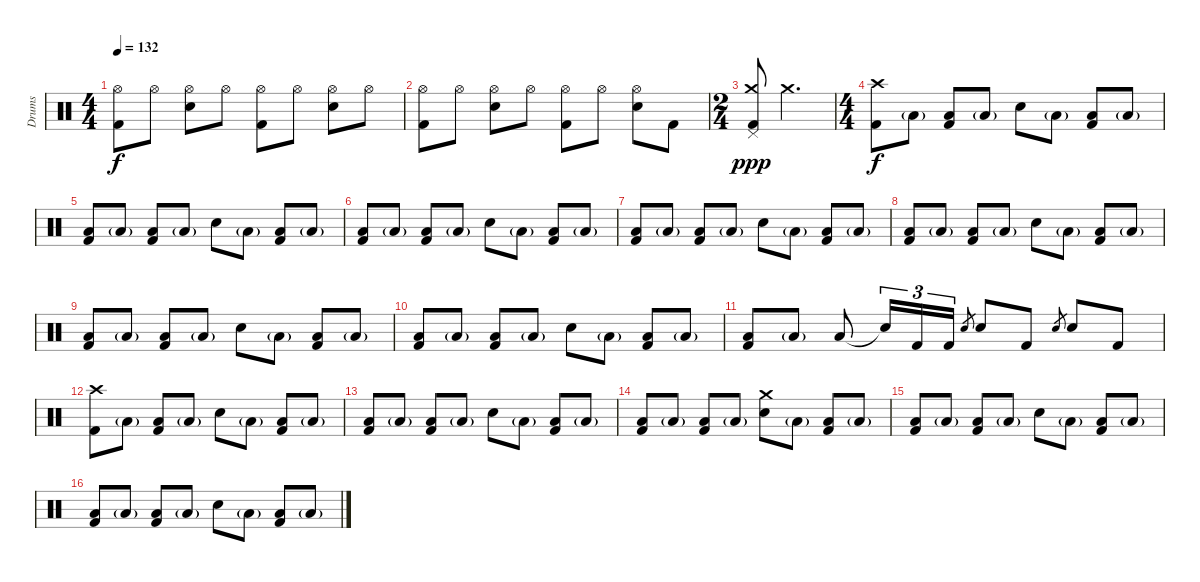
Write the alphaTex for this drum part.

\track ("Drums" "Drums") {instrument percussion}
\staff {score}
\articulation defaults
\ts (4 4)
\tempo 132
\clef neutral
\ks c
("Hi-Hat (open)" "Kick (hit) 2").8{dy f} "Hi-Hat (open)".8 ("Hi-Hat (open)" "Snare (hit) 2").8 "Hi-Hat (open)".8 ("Hi-Hat (open)" "Kick (hit) 2").8 "Hi-Hat (open)".8 ("Hi-Hat (open)" "Snare (hit) 2").8 "Hi-Hat (open)".8 |
("Hi-Hat (open)" "Kick (hit) 2").8 "Hi-Hat (open)".8 ("Hi-Hat (open)" "Snare (hit) 2").8 "Hi-Hat (open)".8 ("Hi-Hat (open)" "Kick (hit) 2").8 "Hi-Hat (open)".8 ("Hi-Hat (open)" "Snare (hit) 2").8 "Kick (hit) 2".8 |
\ts (2 4)
("Crash medium (hit)" "Pedal Hi-Hat (hit)" "Kick (hit) 2").8{dy ppp} "Crash medium (hit)".4{d} |
\ts (4 4)
("Crash high (hit)" "Kick (hit) 2").8{dy f} "Low Floor Tom (hit)"{g}.8 ("Low Floor Tom (hit)" "Kick (hit) 2").8 "Low Floor Tom (hit)"{g}.8 "Snare (hit) 2".8 "Low Floor Tom (hit)"{g}.8 ("Low Floor Tom (hit)" "Kick (hit) 2").8 "Low Floor Tom (hit)"{g}.8 |
("Low Floor Tom (hit)" "Kick (hit) 2").8 "Low Floor Tom (hit)"{g}.8 ("Low Floor Tom (hit)" "Kick (hit) 2").8 "Low Floor Tom (hit)"{g}.8 "Snare (hit) 2".8 "Low Floor Tom (hit)"{g}.8 ("Low Floor Tom (hit)" "Kick (hit) 2").8 "Low Floor Tom (hit)"{g}.8 |
("Low Floor Tom (hit)" "Kick (hit) 2").8 "Low Floor Tom (hit)"{g}.8 ("Low Floor Tom (hit)" "Kick (hit) 2").8 "Low Floor Tom (hit)"{g}.8 "Snare (hit) 2".8 "Low Floor Tom (hit)"{g}.8 ("Low Floor Tom (hit)" "Kick (hit) 2").8 "Low Floor Tom (hit)"{g}.8 |
("Low Floor Tom (hit)" "Kick (hit) 2").8 "Low Floor Tom (hit)"{g}.8 ("Low Floor Tom (hit)" "Kick (hit) 2").8 "Low Floor Tom (hit)"{g}.8 "Snare (hit) 2".8 "Low Floor Tom (hit)"{g}.8 ("Low Floor Tom (hit)" "Kick (hit) 2").8 "Low Floor Tom (hit)"{g}.8 |
("Low Floor Tom (hit)" "Kick (hit) 2").8 "Low Floor Tom (hit)"{g}.8 ("Low Floor Tom (hit)" "Kick (hit) 2").8 "Low Floor Tom (hit)"{g}.8 "Snare (hit) 2".8 "Low Floor Tom (hit)"{g}.8 ("Low Floor Tom (hit)" "Kick (hit) 2").8 "Low Floor Tom (hit)"{g}.8 |
("Low Floor Tom (hit)" "Kick (hit) 2").8 "Low Floor Tom (hit)"{g}.8 ("Low Floor Tom (hit)" "Kick (hit) 2").8 "Low Floor Tom (hit)"{g}.8 "Snare (hit) 2".8 "Low Floor Tom (hit)"{g}.8 ("Low Floor Tom (hit)" "Kick (hit) 2").8 "Low Floor Tom (hit)"{g}.8 |
("Low Floor Tom (hit)" "Kick (hit) 2").8 "Low Floor Tom (hit)"{g}.8 ("Low Floor Tom (hit)" "Kick (hit) 2").8 "Low Floor Tom (hit)"{g}.8 "Snare (hit) 2".8 "Low Floor Tom (hit)"{g}.8 ("Low Floor Tom (hit)" "Kick (hit) 2").8 "Low Floor Tom (hit)"{g}.8 |
("Low Floor Tom (hit)" "Kick (hit) 2").8 "Low Floor Tom (hit)"{g}.8 "Low Floor Tom (hit)".8 "Snare (hit)"{t}.16{tu (3 2)} "Kick (hit) 2".16{tu (3 2)} "Kick (hit) 2".16{tu (3 2)} "Snare (hit) 2".8{gr} "Snare (hit) 2".8 "Kick (hit) 2".8 "Snare (hit) 2".8{gr} "Snare (hit) 2".8 "Kick (hit) 2".8 |
("Crash high (hit)" "Kick (hit) 2").8 "Low Floor Tom (hit)"{g}.8 ("Low Floor Tom (hit)" "Kick (hit) 2").8 "Low Floor Tom (hit)"{g}.8 "Snare (hit) 2".8 "Low Floor Tom (hit)"{g}.8 ("Low Floor Tom (hit)" "Kick (hit) 2").8 "Low Floor Tom (hit)"{g}.8 |
("Low Floor Tom (hit)" "Kick (hit) 2").8 "Low Floor Tom (hit)"{g}.8 ("Low Floor Tom (hit)" "Kick (hit) 2").8 "Low Floor Tom (hit)"{g}.8 "Snare (hit) 2".8 "Low Floor Tom (hit)"{g}.8 ("Low Floor Tom (hit)" "Kick (hit) 2").8 "Low Floor Tom (hit)"{g}.8 |
("Low Floor Tom (hit)" "Kick (hit) 2").8 "Low Floor Tom (hit)"{g}.8 ("Low Floor Tom (hit)" "Kick (hit) 2").8 "Low Floor Tom (hit)"{g}.8 ("Crash medium (hit)" "Snare (hit) 2").8 "Low Floor Tom (hit)"{g}.8 ("Low Floor Tom (hit)" "Kick (hit) 2").8 "Low Floor Tom (hit)"{g}.8 |
("Low Floor Tom (hit)" "Kick (hit) 2").8 "Low Floor Tom (hit)"{g}.8 ("Low Floor Tom (hit)" "Kick (hit) 2").8 "Low Floor Tom (hit)"{g}.8 "Snare (hit) 2".8 "Low Floor Tom (hit)"{g}.8 ("Low Floor Tom (hit)" "Kick (hit) 2").8 "Low Floor Tom (hit)"{g}.8 |
("Low Floor Tom (hit)" "Kick (hit) 2").8 "Low Floor Tom (hit)"{g}.8 ("Low Floor Tom (hit)" "Kick (hit) 2").8 "Low Floor Tom (hit)"{g}.8 "Snare (hit) 2".8 "Low Floor Tom (hit)"{g}.8 ("Low Floor Tom (hit)" "Kick (hit) 2").8 "Low Floor Tom (hit)"{g}.8
